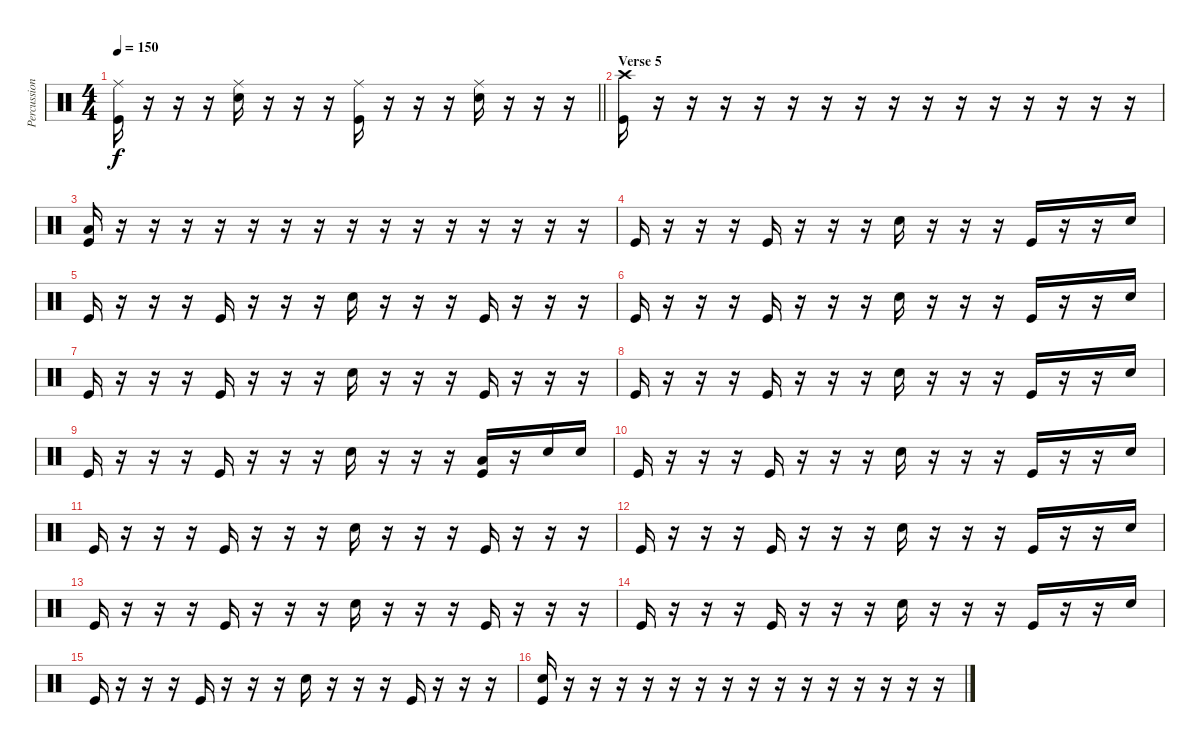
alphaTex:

\track ("Percussion" "Percussion") {instrument percussion}
\staff {score}
\articulation defaults
\ts (4 4)
\tempo 150
\clef neutral
\barLineRight lightlight
\ks c
("Ride (middle)" "Kick (hit)").16{dy f} r.16 r.16 r.16 ("Ride (middle)" "Electric Snare (hit)").16 r.16 r.16 r.16 ("Ride (middle)" "Kick (hit)").16 r.16 r.16 r.16 ("Ride (middle)" "Electric Snare (hit)").16 r.16 r.16 r.16 |
\section ("" "Verse 5")
("Crash high (hit)" "Kick (hit)").16 r.16 r.16 r.16 r.16 r.16 r.16 r.16 r.16 r.16 r.16 r.16 r.16 r.16 r.16 r.16 |
("Low Floor Tom (hit)" "Kick (hit)").16 r.16 r.16 r.16 r.16 r.16 r.16 r.16 r.16 r.16 r.16 r.16 r.16 r.16 r.16 r.16 |
"Kick (hit)".16 r.16 r.16 r.16 "Kick (hit)".16 r.16 r.16 r.16 "Electric Snare (hit)".16 r.16 r.16 r.16 "Kick (hit)".16 r.16 r.16 "Electric Snare (hit)".16 |
"Kick (hit)".16 r.16 r.16 r.16 "Kick (hit)".16 r.16 r.16 r.16 "Electric Snare (hit)".16 r.16 r.16 r.16 "Kick (hit)".16 r.16 r.16 r.16 |
"Kick (hit)".16 r.16 r.16 r.16 "Kick (hit)".16 r.16 r.16 r.16 "Electric Snare (hit)".16 r.16 r.16 r.16 "Kick (hit)".16 r.16 r.16 "Electric Snare (hit)".16 |
"Kick (hit)".16 r.16 r.16 r.16 "Kick (hit)".16 r.16 r.16 r.16 "Electric Snare (hit)".16 r.16 r.16 r.16 "Kick (hit)".16 r.16 r.16 r.16 |
"Kick (hit)".16 r.16 r.16 r.16 "Kick (hit)".16 r.16 r.16 r.16 "Electric Snare (hit)".16 r.16 r.16 r.16 "Kick (hit)".16 r.16 r.16 "Electric Snare (hit)".16 |
"Kick (hit)".16 r.16 r.16 r.16 "Kick (hit)".16 r.16 r.16 r.16 "Electric Snare (hit)".16 r.16 r.16 r.16 ("Low Floor Tom (hit)" "Kick (hit)").16 r.16 "Electric Snare (hit)".16 "Electric Snare (hit)".16 |
"Kick (hit)".16 r.16 r.16 r.16 "Kick (hit)".16 r.16 r.16 r.16 "Electric Snare (hit)".16 r.16 r.16 r.16 "Kick (hit)".16 r.16 r.16 "Electric Snare (hit)".16 |
"Kick (hit)".16 r.16 r.16 r.16 "Kick (hit)".16 r.16 r.16 r.16 "Electric Snare (hit)".16 r.16 r.16 r.16 "Kick (hit)".16 r.16 r.16 r.16 |
"Kick (hit)".16 r.16 r.16 r.16 "Kick (hit)".16 r.16 r.16 r.16 "Electric Snare (hit)".16 r.16 r.16 r.16 "Kick (hit)".16 r.16 r.16 "Electric Snare (hit)".16 |
"Kick (hit)".16 r.16 r.16 r.16 "Kick (hit)".16 r.16 r.16 r.16 "Electric Snare (hit)".16 r.16 r.16 r.16 "Kick (hit)".16 r.16 r.16 r.16 |
"Kick (hit)".16 r.16 r.16 r.16 "Kick (hit)".16 r.16 r.16 r.16 "Electric Snare (hit)".16 r.16 r.16 r.16 "Kick (hit)".16 r.16 r.16 "Electric Snare (hit)".16 |
"Kick (hit)".16 r.16 r.16 r.16 "Kick (hit)".16 r.16 r.16 r.16 "Electric Snare (hit)".16 r.16 r.16 r.16 "Kick (hit)".16 r.16 r.16 r.16 |
("Electric Snare (hit)" "Kick (hit)").16 r.16 r.16 r.16 r.16 r.16 r.16 r.16 r.16 r.16 r.16 r.16 r.16 r.16 r.16 r.16
